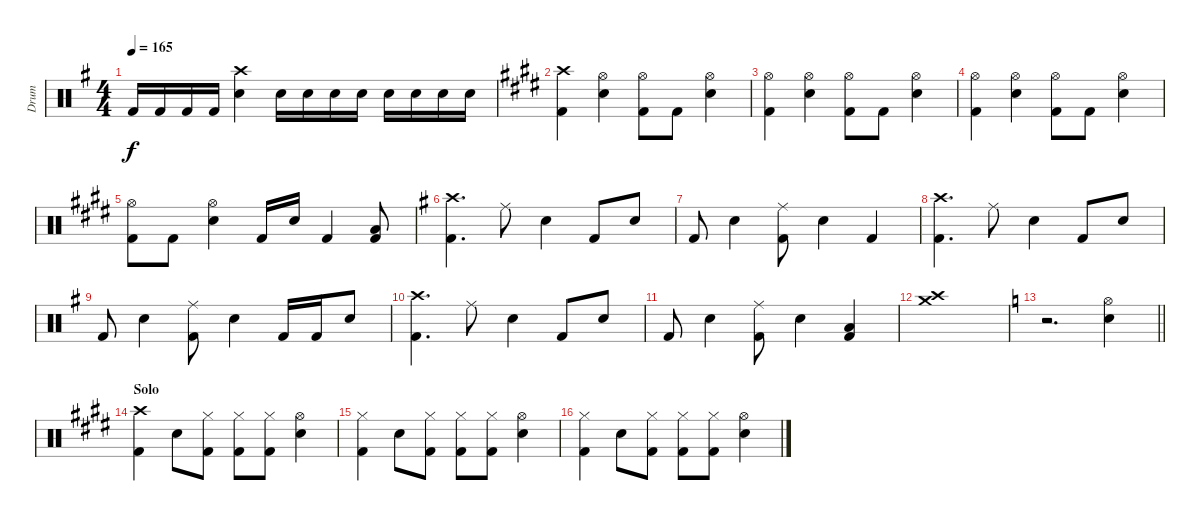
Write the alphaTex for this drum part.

\track ("Drum" "Drum") {instrument percussion}
\staff {score}
\articulation defaults
\ts (4 4)
\tempo 165
\clef neutral
\ks g "Kick (hit) 2".16{dy f} "Kick (hit) 2".16 "Kick (hit) 2".16 "Kick (hit) 2".16
("Crash high (hit)" "Electric Snare (hit)").4 "Electric Snare (hit)".16 "Electric Snare (hit)".16 "Electric Snare (hit)".16 "Electric Snare (hit)".16 "Electric Snare (hit)".16 "Electric Snare (hit)".16 "Electric Snare (hit)".16 "Electric Snare (hit)".16 |
\ks e
("Crash high (hit)" "Kick (hit) 2").4 ("Hi-Hat (open)" "Electric Snare (hit)").4 ("Hi-Hat (open)" "Kick (hit) 2").8 "Kick (hit) 2".8 ("Hi-Hat (open)" "Electric Snare (hit)").4 |
("Hi-Hat (open)" "Kick (hit) 2").4 ("Hi-Hat (open)" "Electric Snare (hit)").4 ("Hi-Hat (open)" "Kick (hit) 2").8 "Kick (hit) 2".8 ("Hi-Hat (open)" "Electric Snare (hit)").4 |
("Hi-Hat (open)" "Kick (hit) 2").4 ("Hi-Hat (open)" "Electric Snare (hit)").4 ("Hi-Hat (open)" "Kick (hit) 2").8 "Kick (hit) 2".8 ("Hi-Hat (open)" "Electric Snare (hit)").4 |
("Hi-Hat (open)" "Kick (hit) 2").8 "Kick (hit) 2".8 ("Hi-Hat (open)" "Electric Snare (hit)").4 "Kick (hit) 2".16 "Electric Snare (hit)".16 "Kick (hit) 2".4 ("Low Floor Tom (hit)" "Kick (hit) 2").8 |
\ks g
("Crash high (hit)" "Kick (hit) 2").4{d} "Ride (middle)".8 "Electric Snare (hit)".4 "Kick (hit) 2".8 "Electric Snare (hit)".8 |
"Kick (hit) 2".8 "Electric Snare (hit)".4 ("Ride (middle)" "Kick (hit) 2").8 "Electric Snare (hit)".4 "Kick (hit) 2".4 |
("Crash high (hit)" "Kick (hit) 2").4{d} "Ride (middle)".8 "Electric Snare (hit)".4 "Kick (hit) 2".8 "Electric Snare (hit)".8 |
"Kick (hit) 2".8 "Electric Snare (hit)".4 ("Ride (middle)" "Kick (hit) 2").8 "Electric Snare (hit)".4 "Kick (hit) 2".16 "Kick (hit) 2".16 "Electric Snare (hit)".8 |
("Crash high (hit)" "Kick (hit) 2").4{d} "Ride (middle)".8 "Electric Snare (hit)".4 "Kick (hit) 2".8 "Electric Snare (hit)".8 |
"Kick (hit) 2".8 "Electric Snare (hit)".4 ("Ride (middle)" "Kick (hit) 2").8 "Electric Snare (hit)".4 ("Low Floor Tom (hit)" "Kick (hit) 2").4 |
("Crash high (hit)" "Crash medium (hit)").1 |
\barLineRight lightlight
\ks c
r.2{d} ("Hi-Hat (open)" "Electric Snare (hit)").4 |
\section ("" "Solo")
\ks e
("Crash high (hit)" "Kick (hit) 2").4 "Electric Snare (hit)".8 ("Hi-Hat (closed)" "Kick (hit) 2").8 ("Hi-Hat (closed)" "Kick (hit) 2").8 ("Hi-Hat (closed)" "Kick (hit) 2").8 ("Hi-Hat (open)" "Electric Snare (hit)").4 |
("Hi-Hat (closed)" "Kick (hit) 2").4 "Electric Snare (hit)".8 ("Hi-Hat (closed)" "Kick (hit) 2").8 ("Hi-Hat (closed)" "Kick (hit) 2").8 ("Hi-Hat (closed)" "Kick (hit) 2").8 ("Hi-Hat (open)" "Electric Snare (hit)").4 |
("Hi-Hat (closed)" "Kick (hit) 2").4 "Electric Snare (hit)".8 ("Hi-Hat (closed)" "Kick (hit) 2").8 ("Hi-Hat (closed)" "Kick (hit) 2").8 ("Hi-Hat (closed)" "Kick (hit) 2").8 ("Hi-Hat (open)" "Electric Snare (hit)").4
